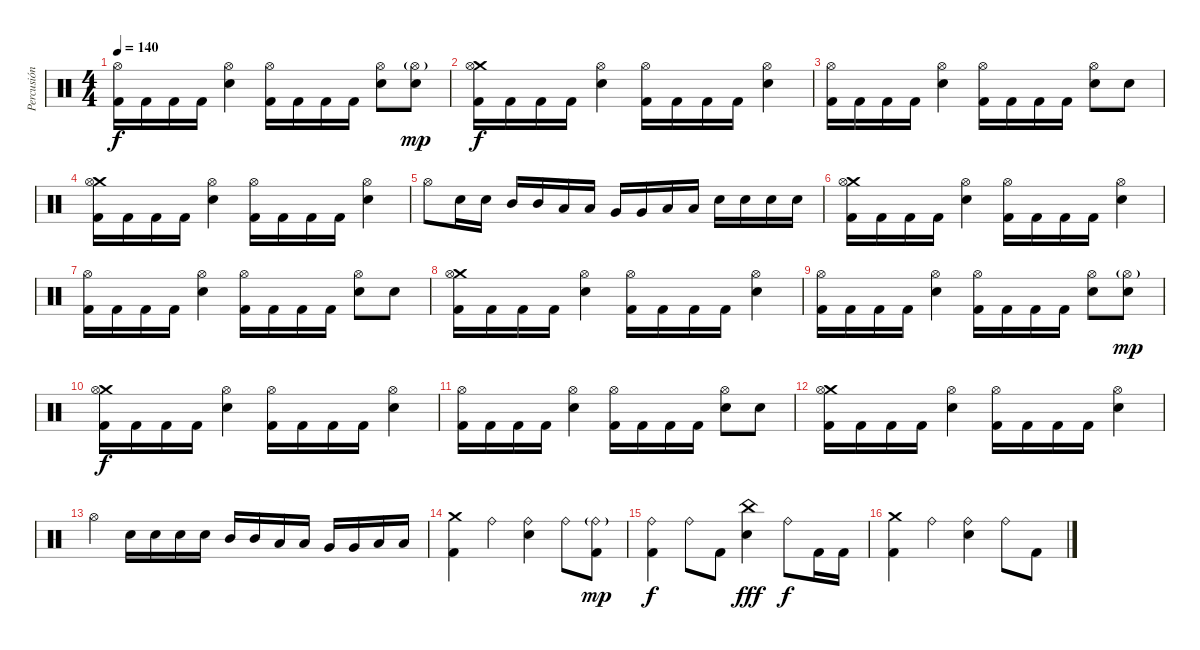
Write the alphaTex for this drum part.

\track ("Percusión" "Percusión") {instrument percussion}
\staff {score}
\articulation defaults
\ts (4 4)
\tempo 140
\clef neutral
\ks c
("Hi-Hat (open)" "Kick (hit) 2").16{dy f} "Kick (hit) 2".16 "Kick (hit) 2".16 "Kick (hit) 2".16 ("Hi-Hat (open)" "Electric Snare (hit)").4 ("Hi-Hat (open)" "Kick (hit) 2").16 "Kick (hit) 2".16 "Kick (hit) 2".16 "Kick (hit) 2".16 ("Hi-Hat (open)" "Electric Snare (hit)").8 ("Hi-Hat (open)"{g} "Electric Snare (hit)").8{dy mp} |
("Crash medium (hit)" "Hi-Hat (open)" "Kick (hit) 2").16{dy f} "Kick (hit) 2".16 "Kick (hit) 2".16 "Kick (hit) 2".16 ("Hi-Hat (open)" "Electric Snare (hit)").4 ("Hi-Hat (open)" "Kick (hit) 2").16 "Kick (hit) 2".16 "Kick (hit) 2".16 "Kick (hit) 2".16 ("Hi-Hat (open)" "Electric Snare (hit)").4 |
("Hi-Hat (open)" "Kick (hit) 2").16 "Kick (hit) 2".16 "Kick (hit) 2".16 "Kick (hit) 2".16 ("Hi-Hat (open)" "Electric Snare (hit)").4 ("Hi-Hat (open)" "Kick (hit) 2").16 "Kick (hit) 2".16 "Kick (hit) 2".16 "Kick (hit) 2".16 ("Hi-Hat (open)" "Electric Snare (hit)").8 "Electric Snare (hit)".8 |
("Crash medium (hit)" "Hi-Hat (open)" "Kick (hit) 2").16 "Kick (hit) 2".16 "Kick (hit) 2".16 "Kick (hit) 2".16 ("Hi-Hat (open)" "Electric Snare (hit)").4 ("Hi-Hat (open)" "Kick (hit) 2").16 "Kick (hit) 2".16 "Kick (hit) 2".16 "Kick (hit) 2".16 ("Hi-Hat (open)" "Electric Snare (hit)").4 |
"Hi-Hat (open)".8 "Electric Snare (hit)".16 "Electric Snare (hit)".16 "Mid Tom (hit)".16 "Mid Tom (hit)".16 "Low Tom (hit)".16 "Low Tom (hit)".16 "Very Low Tom (hit)".16 "Very Low Tom (hit)".16 "Low Floor Tom (hit)".16 "Low Floor Tom (hit)".16 "Electric Snare (hit)".16 "Electric Snare (hit)".16 "Electric Snare (hit)".16 "Electric Snare (hit)".16 |
("Crash medium (hit)" "Hi-Hat (open)" "Kick (hit) 2").16 "Kick (hit) 2".16 "Kick (hit) 2".16 "Kick (hit) 2".16 ("Hi-Hat (open)" "Electric Snare (hit)").4 ("Hi-Hat (open)" "Kick (hit) 2").16 "Kick (hit) 2".16 "Kick (hit) 2".16 "Kick (hit) 2".16 ("Hi-Hat (open)" "Electric Snare (hit)").4 |
("Hi-Hat (open)" "Kick (hit) 2").16 "Kick (hit) 2".16 "Kick (hit) 2".16 "Kick (hit) 2".16 ("Hi-Hat (open)" "Electric Snare (hit)").4 ("Hi-Hat (open)" "Kick (hit) 2").16 "Kick (hit) 2".16 "Kick (hit) 2".16 "Kick (hit) 2".16 ("Hi-Hat (open)" "Electric Snare (hit)").8 "Electric Snare (hit)".8 |
("Crash medium (hit)" "Hi-Hat (open)" "Kick (hit) 2").16 "Kick (hit) 2".16 "Kick (hit) 2".16 "Kick (hit) 2".16 ("Hi-Hat (open)" "Electric Snare (hit)").4 ("Hi-Hat (open)" "Kick (hit) 2").16 "Kick (hit) 2".16 "Kick (hit) 2".16 "Kick (hit) 2".16 ("Hi-Hat (open)" "Electric Snare (hit)").4 |
("Hi-Hat (open)" "Kick (hit) 2").16 "Kick (hit) 2".16 "Kick (hit) 2".16 "Kick (hit) 2".16 ("Hi-Hat (open)" "Electric Snare (hit)").4 ("Hi-Hat (open)" "Kick (hit) 2").16 "Kick (hit) 2".16 "Kick (hit) 2".16 "Kick (hit) 2".16 ("Hi-Hat (open)" "Electric Snare (hit)").8 ("Hi-Hat (open)"{g} "Electric Snare (hit)").8{dy mp} |
("Crash medium (hit)" "Hi-Hat (open)" "Kick (hit) 2").16{dy f} "Kick (hit) 2".16 "Kick (hit) 2".16 "Kick (hit) 2".16 ("Hi-Hat (open)" "Electric Snare (hit)").4 ("Hi-Hat (open)" "Kick (hit) 2").16 "Kick (hit) 2".16 "Kick (hit) 2".16 "Kick (hit) 2".16 ("Hi-Hat (open)" "Electric Snare (hit)").4 |
("Hi-Hat (open)" "Kick (hit) 2").16 "Kick (hit) 2".16 "Kick (hit) 2".16 "Kick (hit) 2".16 ("Hi-Hat (open)" "Electric Snare (hit)").4 ("Hi-Hat (open)" "Kick (hit) 2").16 "Kick (hit) 2".16 "Kick (hit) 2".16 "Kick (hit) 2".16 ("Hi-Hat (open)" "Electric Snare (hit)").8 "Electric Snare (hit)".8 |
("Crash medium (hit)" "Hi-Hat (open)" "Kick (hit) 2").16 "Kick (hit) 2".16 "Kick (hit) 2".16 "Kick (hit) 2".16 ("Hi-Hat (open)" "Electric Snare (hit)").4 ("Hi-Hat (open)" "Kick (hit) 2").16 "Kick (hit) 2".16 "Kick (hit) 2".16 "Kick (hit) 2".16 ("Hi-Hat (open)" "Electric Snare (hit)").4 |
"Hi-Hat (open)".4 "Electric Snare (hit)".16 "Electric Snare (hit)".16 "Electric Snare (hit)".16 "Electric Snare (hit)".16 "Mid Tom (hit)".16 "Mid Tom (hit)".16 "Low Tom (hit)".16 "Low Tom (hit)".16 "Very Low Tom (hit)".16 "Very Low Tom (hit)".16 "Low Floor Tom (hit)".16 "Low Floor Tom (hit)".16 |
("Crash medium (hit)" "Kick (hit) 2").4 "Ride (bell)".4 ("Ride (bell)" "Electric Snare (hit)").4 "Ride (bell)".8 ("Ride (bell)"{g} "Kick (hit) 2").8{dy mp} |
("Ride (bell)" "Kick (hit) 2").4{dy f} "Ride (bell)".8 "Kick (hit) 2".8 ("China (hit)" "Electric Snare (hit)").4{dy fff} "Ride (bell)".8{dy f} "Kick (hit) 2".16 "Kick (hit) 2".16 |
("Crash medium (hit)" "Kick (hit) 2").4 "Ride (bell)".4 ("Ride (bell)" "Electric Snare (hit)").4 "Ride (bell)".8 "Kick (hit) 2".8
